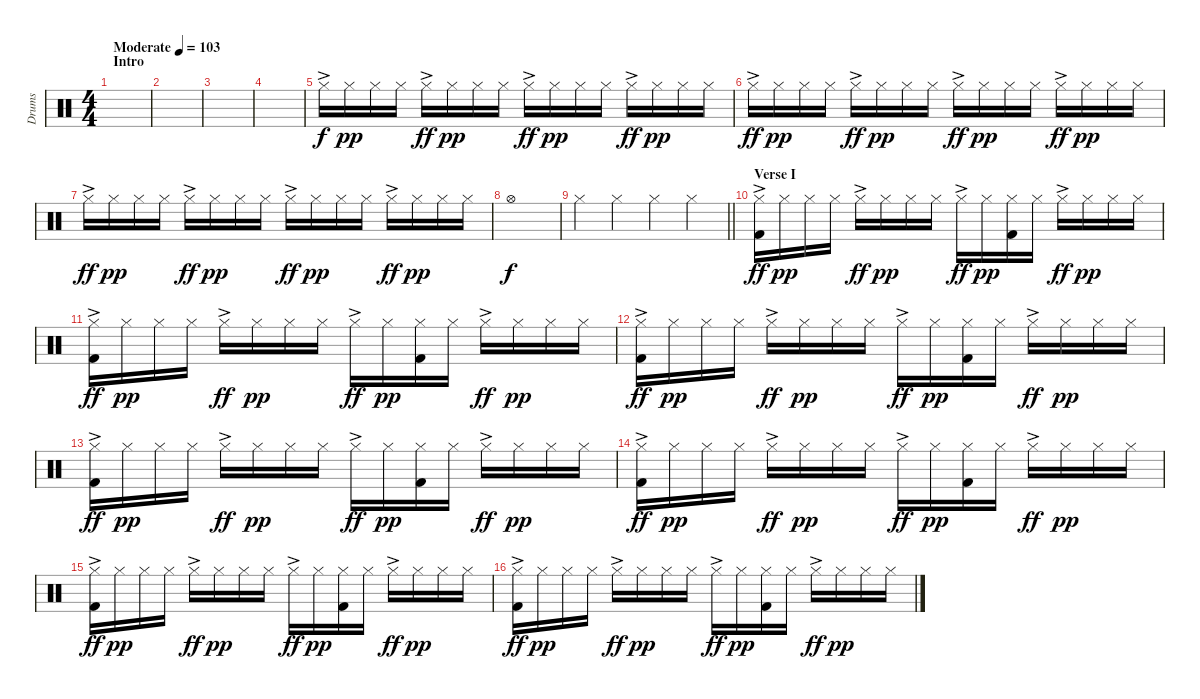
\track ("Drums" "Drums") {instrument percussion}
\staff {score}
\articulation defaults
\ts (4 4)
\section ("" "Intro")
\tempo (103 "Moderate")
\clef neutral
\ks c
|
|
|
|
"Hi-Hat (closed)"{ac}.16 "Hi-Hat (closed)".16{dy pp} "Hi-Hat (closed)".16 "Hi-Hat (closed)".16 "Hi-Hat (closed)"{ac}.16{dy ff} "Hi-Hat (closed)".16{dy pp} "Hi-Hat (closed)".16 "Hi-Hat (closed)".16 "Hi-Hat (closed)"{ac}.16{dy ff} "Hi-Hat (closed)".16{dy pp} "Hi-Hat (closed)".16 "Hi-Hat (closed)".16 "Hi-Hat (closed)"{ac}.16{dy ff} "Hi-Hat (closed)".16{dy pp} "Hi-Hat (closed)".16 "Hi-Hat (closed)".16 |
"Hi-Hat (closed)"{ac}.16{dy ff} "Hi-Hat (closed)".16{dy pp} "Hi-Hat (closed)".16 "Hi-Hat (closed)".16 "Hi-Hat (closed)"{ac}.16{dy ff} "Hi-Hat (closed)".16{dy pp} "Hi-Hat (closed)".16 "Hi-Hat (closed)".16 "Hi-Hat (closed)"{ac}.16{dy ff} "Hi-Hat (closed)".16{dy pp} "Hi-Hat (closed)".16 "Hi-Hat (closed)".16 "Hi-Hat (closed)"{ac}.16{dy ff} "Hi-Hat (closed)".16{dy pp} "Hi-Hat (closed)".16 "Hi-Hat (closed)".16 |
"Hi-Hat (closed)"{ac}.16{dy ff} "Hi-Hat (closed)".16{dy pp} "Hi-Hat (closed)".16 "Hi-Hat (closed)".16 "Hi-Hat (closed)"{ac}.16{dy ff} "Hi-Hat (closed)".16{dy pp} "Hi-Hat (closed)".16 "Hi-Hat (closed)".16 "Hi-Hat (closed)"{ac}.16{dy ff} "Hi-Hat (closed)".16{dy pp} "Hi-Hat (closed)".16 "Hi-Hat (closed)".16 "Hi-Hat (closed)"{ac}.16{dy ff} "Hi-Hat (closed)".16{dy pp} "Hi-Hat (closed)".16 "Hi-Hat (closed)".16 |
"Hi-Hat (open)".1{dy f} |
\barLineRight lightlight "Hi-Hat (closed)".4 "Hi-Hat (closed)".4 "Hi-Hat (closed)".4 "Hi-Hat (closed)".4
|
\section ("" "Verse I")
("Hi-Hat (closed)"{ac} "Kick (hit) 2").16{dy ff} "Hi-Hat (closed)".16{dy pp} "Hi-Hat (closed)".16 "Hi-Hat (closed)".16 "Hi-Hat (closed)"{ac}.16{dy ff} "Hi-Hat (closed)".16{dy pp} "Hi-Hat (closed)".16 "Hi-Hat (closed)".16 "Hi-Hat (closed)"{ac}.16{dy ff} "Hi-Hat (closed)".16{dy pp} ("Hi-Hat (closed)" "Kick (hit) 2").16 "Hi-Hat (closed)".16 "Hi-Hat (closed)"{ac}.16{dy ff} "Hi-Hat (closed)".16{dy pp} "Hi-Hat (closed)".16 "Hi-Hat (closed)".16 |
("Hi-Hat (closed)"{ac} "Kick (hit) 2").16{dy ff} "Hi-Hat (closed)".16{dy pp} "Hi-Hat (closed)".16 "Hi-Hat (closed)".16 "Hi-Hat (closed)"{ac}.16{dy ff} "Hi-Hat (closed)".16{dy pp} "Hi-Hat (closed)".16 "Hi-Hat (closed)".16 "Hi-Hat (closed)"{ac}.16{dy ff} "Hi-Hat (closed)".16{dy pp} ("Hi-Hat (closed)" "Kick (hit) 2").16 "Hi-Hat (closed)".16 "Hi-Hat (closed)"{ac}.16{dy ff} "Hi-Hat (closed)".16{dy pp} "Hi-Hat (closed)".16 "Hi-Hat (closed)".16 |
("Hi-Hat (closed)"{ac} "Kick (hit) 2").16{dy ff} "Hi-Hat (closed)".16{dy pp} "Hi-Hat (closed)".16 "Hi-Hat (closed)".16 "Hi-Hat (closed)"{ac}.16{dy ff} "Hi-Hat (closed)".16{dy pp} "Hi-Hat (closed)".16 "Hi-Hat (closed)".16 "Hi-Hat (closed)"{ac}.16{dy ff} "Hi-Hat (closed)".16{dy pp} ("Hi-Hat (closed)" "Kick (hit) 2").16 "Hi-Hat (closed)".16 "Hi-Hat (closed)"{ac}.16{dy ff} "Hi-Hat (closed)".16{dy pp} "Hi-Hat (closed)".16 "Hi-Hat (closed)".16 |
("Hi-Hat (closed)"{ac} "Kick (hit) 2").16{dy ff} "Hi-Hat (closed)".16{dy pp} "Hi-Hat (closed)".16 "Hi-Hat (closed)".16 "Hi-Hat (closed)"{ac}.16{dy ff} "Hi-Hat (closed)".16{dy pp} "Hi-Hat (closed)".16 "Hi-Hat (closed)".16 "Hi-Hat (closed)"{ac}.16{dy ff} "Hi-Hat (closed)".16{dy pp} ("Hi-Hat (closed)" "Kick (hit) 2").16 "Hi-Hat (closed)".16 "Hi-Hat (closed)"{ac}.16{dy ff} "Hi-Hat (closed)".16{dy pp} "Hi-Hat (closed)".16 "Hi-Hat (closed)".16 |
("Hi-Hat (closed)"{ac} "Kick (hit) 2").16{dy ff} "Hi-Hat (closed)".16{dy pp} "Hi-Hat (closed)".16 "Hi-Hat (closed)".16 "Hi-Hat (closed)"{ac}.16{dy ff} "Hi-Hat (closed)".16{dy pp} "Hi-Hat (closed)".16 "Hi-Hat (closed)".16 "Hi-Hat (closed)"{ac}.16{dy ff} "Hi-Hat (closed)".16{dy pp} ("Hi-Hat (closed)" "Kick (hit) 2").16 "Hi-Hat (closed)".16 "Hi-Hat (closed)"{ac}.16{dy ff} "Hi-Hat (closed)".16{dy pp} "Hi-Hat (closed)".16 "Hi-Hat (closed)".16 |
("Hi-Hat (closed)"{ac} "Kick (hit) 2").16{dy ff} "Hi-Hat (closed)".16{dy pp} "Hi-Hat (closed)".16 "Hi-Hat (closed)".16 "Hi-Hat (closed)"{ac}.16{dy ff} "Hi-Hat (closed)".16{dy pp} "Hi-Hat (closed)".16 "Hi-Hat (closed)".16 "Hi-Hat (closed)"{ac}.16{dy ff} "Hi-Hat (closed)".16{dy pp} ("Hi-Hat (closed)" "Kick (hit) 2").16 "Hi-Hat (closed)".16 "Hi-Hat (closed)"{ac}.16{dy ff} "Hi-Hat (closed)".16{dy pp} "Hi-Hat (closed)".16 "Hi-Hat (closed)".16 |
("Hi-Hat (closed)"{ac} "Kick (hit) 2").16{dy ff} "Hi-Hat (closed)".16{dy pp} "Hi-Hat (closed)".16 "Hi-Hat (closed)".16 "Hi-Hat (closed)"{ac}.16{dy ff} "Hi-Hat (closed)".16{dy pp} "Hi-Hat (closed)".16 "Hi-Hat (closed)".16 "Hi-Hat (closed)"{ac}.16{dy ff} "Hi-Hat (closed)".16{dy pp} ("Hi-Hat (closed)" "Kick (hit) 2").16 "Hi-Hat (closed)".16 "Hi-Hat (closed)"{ac}.16{dy ff} "Hi-Hat (closed)".16{dy pp} "Hi-Hat (closed)".16 "Hi-Hat (closed)".16
